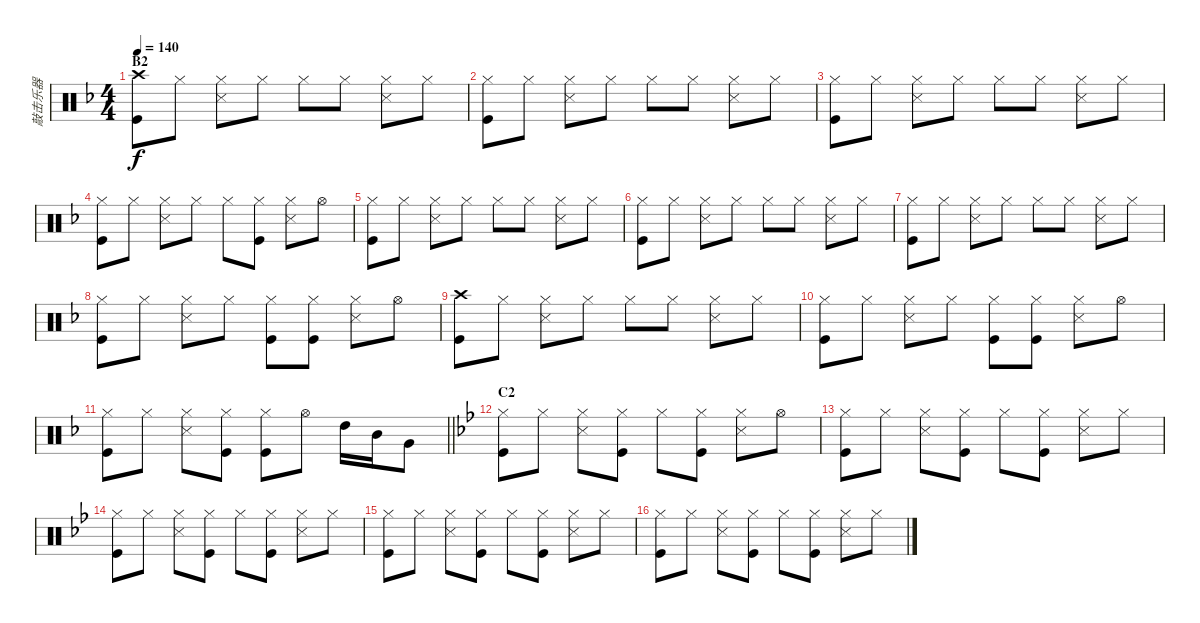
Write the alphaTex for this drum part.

\track ("敲击乐器" "敲击乐器") {instrument percussion}
\staff {score}
\articulation defaults
\ts (4 4)
\section ("" "B2")
\tempo 140
\clef neutral
\ks f
("Crash high (hit)" "Kick (hit)").8{dy f} "Hi-Hat (closed)".8 ("Hi-Hat (closed)" "Snare (side stick) 3").8 "Hi-Hat (closed)".8 "Hi-Hat (closed)".8 "Hi-Hat (closed)".8 ("Hi-Hat (closed)" "Snare (side stick) 3").8 "Hi-Hat (closed)".8 |
("Hi-Hat (closed)" "Kick (hit)").8 "Hi-Hat (closed)".8 ("Hi-Hat (closed)" "Snare (side stick) 3").8 "Hi-Hat (closed)".8 "Hi-Hat (closed)".8 "Hi-Hat (closed)".8 ("Hi-Hat (closed)" "Snare (side stick) 3").8 "Hi-Hat (closed)".8 |
("Hi-Hat (closed)" "Kick (hit)").8 "Hi-Hat (closed)".8 ("Hi-Hat (closed)" "Snare (side stick) 3").8 "Hi-Hat (closed)".8 "Hi-Hat (closed)".8 "Hi-Hat (closed)".8 ("Hi-Hat (closed)" "Snare (side stick) 3").8 "Hi-Hat (closed)".8 |
("Hi-Hat (closed)" "Kick (hit)").8 "Hi-Hat (closed)".8 ("Hi-Hat (closed)" "Snare (side stick) 3").8 "Hi-Hat (closed)".8 "Hi-Hat (closed)".8 ("Hi-Hat (closed)" "Kick (hit)").8 ("Hi-Hat (closed)" "Snare (side stick) 3").8 "Hi-Hat (open)".8 |
("Hi-Hat (closed)" "Kick (hit)").8 "Hi-Hat (closed)".8 ("Hi-Hat (closed)" "Snare (side stick) 3").8 "Hi-Hat (closed)".8 "Hi-Hat (closed)".8 "Hi-Hat (closed)".8 ("Hi-Hat (closed)" "Snare (side stick) 3").8 "Hi-Hat (closed)".8 |
("Hi-Hat (closed)" "Kick (hit)").8 "Hi-Hat (closed)".8 ("Hi-Hat (closed)" "Snare (side stick) 3").8 "Hi-Hat (closed)".8 "Hi-Hat (closed)".8 "Hi-Hat (closed)".8 ("Hi-Hat (closed)" "Snare (side stick) 3").8 "Hi-Hat (closed)".8 |
("Hi-Hat (closed)" "Kick (hit)").8 "Hi-Hat (closed)".8 ("Hi-Hat (closed)" "Snare (side stick) 3").8 "Hi-Hat (closed)".8 "Hi-Hat (closed)".8 "Hi-Hat (closed)".8 ("Hi-Hat (closed)" "Snare (side stick) 3").8 "Hi-Hat (closed)".8 |
("Hi-Hat (closed)" "Kick (hit)").8 "Hi-Hat (closed)".8 ("Hi-Hat (closed)" "Snare (side stick) 3").8 "Hi-Hat (closed)".8 ("Hi-Hat (closed)" "Kick (hit)").8 ("Hi-Hat (closed)" "Kick (hit)").8 ("Hi-Hat (closed)" "Snare (side stick) 3").8 "Hi-Hat (open)".8 |
("Crash high (hit)" "Kick (hit)").8 "Hi-Hat (closed)".8 ("Hi-Hat (closed)" "Snare (side stick) 3").8 "Hi-Hat (closed)".8 "Hi-Hat (closed)".8 "Hi-Hat (closed)".8 ("Hi-Hat (closed)" "Snare (side stick) 3").8 "Hi-Hat (closed)".8 |
("Hi-Hat (closed)" "Kick (hit)").8 "Hi-Hat (closed)".8 ("Hi-Hat (closed)" "Snare (side stick) 3").8 "Hi-Hat (closed)".8 ("Hi-Hat (closed)" "Kick (hit)").8 ("Hi-Hat (closed)" "Kick (hit)").8 ("Hi-Hat (closed)" "Snare (side stick) 3").8 "Hi-Hat (open)".8 |
\barLineRight lightlight
("Hi-Hat (closed)" "Kick (hit)").8 "Hi-Hat (closed)".8 ("Hi-Hat (closed)" "Snare (side stick) 3").8 ("Hi-Hat (closed)" "Kick (hit)").8 ("Hi-Hat (closed)" "Kick (hit)").8 "Hi-Hat (open)".8 "High Tom (hit)".16 "Mid Tom (hit)".16 "Very Low Tom (hit)".8 |
\section ("" "C2")
\ks bb
("Hi-Hat (closed)" "Kick (hit)").8 "Hi-Hat (closed)".8 ("Hi-Hat (closed)" "Snare (side stick) 3").8 ("Hi-Hat (closed)" "Kick (hit)").8 "Hi-Hat (closed)".8 ("Hi-Hat (closed)" "Kick (hit)").8 ("Hi-Hat (closed)" "Snare (side stick) 3").8 "Hi-Hat (open)".8 |
("Hi-Hat (closed)" "Kick (hit)").8 "Hi-Hat (closed)".8 ("Hi-Hat (closed)" "Snare (side stick) 3").8 ("Hi-Hat (closed)" "Kick (hit)").8 "Hi-Hat (closed)".8 ("Hi-Hat (closed)" "Kick (hit)").8 ("Hi-Hat (closed)" "Snare (side stick) 3").8 "Hi-Hat (closed)".8 |
("Hi-Hat (closed)" "Kick (hit)").8 "Hi-Hat (closed)".8 ("Hi-Hat (closed)" "Snare (side stick) 3").8 ("Hi-Hat (closed)" "Kick (hit)").8 "Hi-Hat (closed)".8 ("Hi-Hat (closed)" "Kick (hit)").8 ("Hi-Hat (closed)" "Snare (side stick) 3").8 "Hi-Hat (closed)".8 |
("Hi-Hat (closed)" "Kick (hit)").8 "Hi-Hat (closed)".8 ("Hi-Hat (closed)" "Snare (side stick) 3").8 ("Hi-Hat (closed)" "Kick (hit)").8 "Hi-Hat (closed)".8 ("Hi-Hat (closed)" "Kick (hit)").8 ("Hi-Hat (closed)" "Snare (side stick) 3").8 "Hi-Hat (closed)".8 |
("Hi-Hat (closed)" "Kick (hit)").8 "Hi-Hat (closed)".8 ("Hi-Hat (closed)" "Snare (side stick) 3").8 ("Hi-Hat (closed)" "Kick (hit)").8 "Hi-Hat (closed)".8 ("Hi-Hat (closed)" "Kick (hit)").8 ("Hi-Hat (closed)" "Snare (side stick) 3").8 "Hi-Hat (closed)".8
